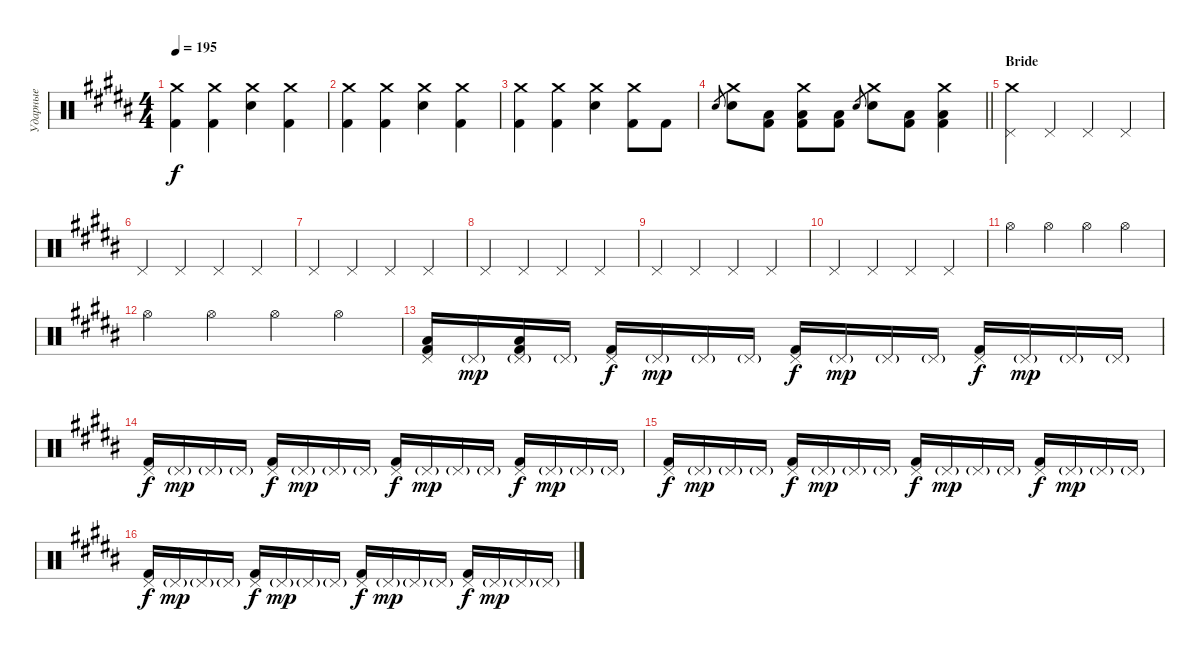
\track ("Ударные" "Ударные") {instrument percussion}
\staff {score}
\articulation defaults
\ts (4 4)
\tempo 195
\clef neutral
\ks b
("Crash medium (hit)" "Kick (hit) 2").4{dy f} ("Crash medium (hit)" "Kick (hit) 2").4 ("Crash medium (hit)" "Electric Snare (hit)").4 ("Crash medium (hit)" "Kick (hit) 2").4 |
("Crash medium (hit)" "Kick (hit) 2").4 ("Crash medium (hit)" "Kick (hit) 2").4 ("Crash medium (hit)" "Electric Snare (hit)").4 ("Crash medium (hit)" "Kick (hit) 2").4 |
("Crash medium (hit)" "Kick (hit) 2").4 ("Crash medium (hit)" "Kick (hit) 2").4 ("Crash medium (hit)" "Electric Snare (hit)").4 ("Crash medium (hit)" "Kick (hit) 2").8 "Kick (hit) 2".8 |
\barLineRight lightlight "Electric Snare (hit)".8{gr}
("Crash medium (hit)" "Electric Snare (hit)").8 ("Low Tom (hit)" "Kick (hit) 2").8 ("Crash medium (hit)" "Low Tom (hit)" "Kick (hit) 2").8 ("Low Tom (hit)" "Kick (hit) 2").8 "Electric Snare (hit)".8{gr} ("Crash medium (hit)" "Electric Snare (hit)").8 ("Low Tom (hit)" "Kick (hit) 2").8 ("Crash medium (hit)" "Low Tom (hit)" "Kick (hit) 2").4 |
\section ("" "Bride")
("Crash medium (hit)" "Pedal Hi-Hat (hit)").4 "Pedal Hi-Hat (hit)".4 "Pedal Hi-Hat (hit)".4 "Pedal Hi-Hat (hit)".4 |
"Pedal Hi-Hat (hit)".4 "Pedal Hi-Hat (hit)".4 "Pedal Hi-Hat (hit)".4 "Pedal Hi-Hat (hit)".4 |
"Pedal Hi-Hat (hit)".4 "Pedal Hi-Hat (hit)".4 "Pedal Hi-Hat (hit)".4 "Pedal Hi-Hat (hit)".4 |
"Pedal Hi-Hat (hit)".4 "Pedal Hi-Hat (hit)".4 "Pedal Hi-Hat (hit)".4 "Pedal Hi-Hat (hit)".4 |
"Pedal Hi-Hat (hit)".4 "Pedal Hi-Hat (hit)".4 "Pedal Hi-Hat (hit)".4 "Pedal Hi-Hat (hit)".4 |
"Pedal Hi-Hat (hit)".4 "Pedal Hi-Hat (hit)".4 "Pedal Hi-Hat (hit)".4 "Pedal Hi-Hat (hit)".4 |
"Hi-Hat (open)".4 "Hi-Hat (open)".4 "Hi-Hat (open)".4 "Hi-Hat (open)".4 |
"Hi-Hat (open)".4 "Hi-Hat (open)".4 "Hi-Hat (open)".4 "Hi-Hat (open)".4 |
("Pedal Hi-Hat (hit)" "Low Tom (hit)" "Kick (hit) 2").16 "Pedal Hi-Hat (hit)"{g}.16{dy mp} ("Pedal Hi-Hat (hit)"{g} "Low Tom (hit)" "Kick (hit) 2").16 "Pedal Hi-Hat (hit)"{g}.16 ("Pedal Hi-Hat (hit)" "Kick (hit) 2").16{dy f} "Pedal Hi-Hat (hit)"{g}.16{dy mp} "Pedal Hi-Hat (hit)"{g}.16 "Pedal Hi-Hat (hit)"{g}.16 ("Pedal Hi-Hat (hit)" "Kick (hit) 2").16{dy f} "Pedal Hi-Hat (hit)"{g}.16{dy mp} "Pedal Hi-Hat (hit)"{g}.16 "Pedal Hi-Hat (hit)"{g}.16 ("Pedal Hi-Hat (hit)" "Kick (hit) 2").16{dy f} "Pedal Hi-Hat (hit)"{g}.16{dy mp} "Pedal Hi-Hat (hit)"{g}.16 "Pedal Hi-Hat (hit)"{g}.16 |
("Pedal Hi-Hat (hit)" "Kick (hit) 2").16{dy f} "Pedal Hi-Hat (hit)"{g}.16{dy mp} "Pedal Hi-Hat (hit)"{g}.16 "Pedal Hi-Hat (hit)"{g}.16 ("Pedal Hi-Hat (hit)" "Kick (hit) 2").16{dy f} "Pedal Hi-Hat (hit)"{g}.16{dy mp} "Pedal Hi-Hat (hit)"{g}.16 "Pedal Hi-Hat (hit)"{g}.16 ("Pedal Hi-Hat (hit)" "Kick (hit) 2").16{dy f} "Pedal Hi-Hat (hit)"{g}.16{dy mp} "Pedal Hi-Hat (hit)"{g}.16 "Pedal Hi-Hat (hit)"{g}.16 ("Pedal Hi-Hat (hit)" "Kick (hit) 2").16{dy f} "Pedal Hi-Hat (hit)"{g}.16{dy mp} "Pedal Hi-Hat (hit)"{g}.16 "Pedal Hi-Hat (hit)"{g}.16 |
("Pedal Hi-Hat (hit)" "Kick (hit) 2").16{dy f} "Pedal Hi-Hat (hit)"{g}.16{dy mp} "Pedal Hi-Hat (hit)"{g}.16 "Pedal Hi-Hat (hit)"{g}.16 ("Pedal Hi-Hat (hit)" "Kick (hit) 2").16{dy f} "Pedal Hi-Hat (hit)"{g}.16{dy mp} "Pedal Hi-Hat (hit)"{g}.16 "Pedal Hi-Hat (hit)"{g}.16 ("Pedal Hi-Hat (hit)" "Kick (hit) 2").16{dy f} "Pedal Hi-Hat (hit)"{g}.16{dy mp} "Pedal Hi-Hat (hit)"{g}.16 "Pedal Hi-Hat (hit)"{g}.16 ("Pedal Hi-Hat (hit)" "Kick (hit) 2").16{dy f} "Pedal Hi-Hat (hit)"{g}.16{dy mp} "Pedal Hi-Hat (hit)"{g}.16 "Pedal Hi-Hat (hit)"{g}.16 |
("Pedal Hi-Hat (hit)" "Kick (hit) 2").16{dy f} "Pedal Hi-Hat (hit)"{g}.16{dy mp} "Pedal Hi-Hat (hit)"{g}.16 "Pedal Hi-Hat (hit)"{g}.16 ("Pedal Hi-Hat (hit)" "Kick (hit) 2").16{dy f} "Pedal Hi-Hat (hit)"{g}.16{dy mp} "Pedal Hi-Hat (hit)"{g}.16 "Pedal Hi-Hat (hit)"{g}.16 ("Pedal Hi-Hat (hit)" "Kick (hit) 2").16{dy f} "Pedal Hi-Hat (hit)"{g}.16{dy mp} "Pedal Hi-Hat (hit)"{g}.16 "Pedal Hi-Hat (hit)"{g}.16 ("Pedal Hi-Hat (hit)" "Kick (hit) 2").16{dy f} "Pedal Hi-Hat (hit)"{g}.16{dy mp} "Pedal Hi-Hat (hit)"{g}.16 "Pedal Hi-Hat (hit)"{g}.16
